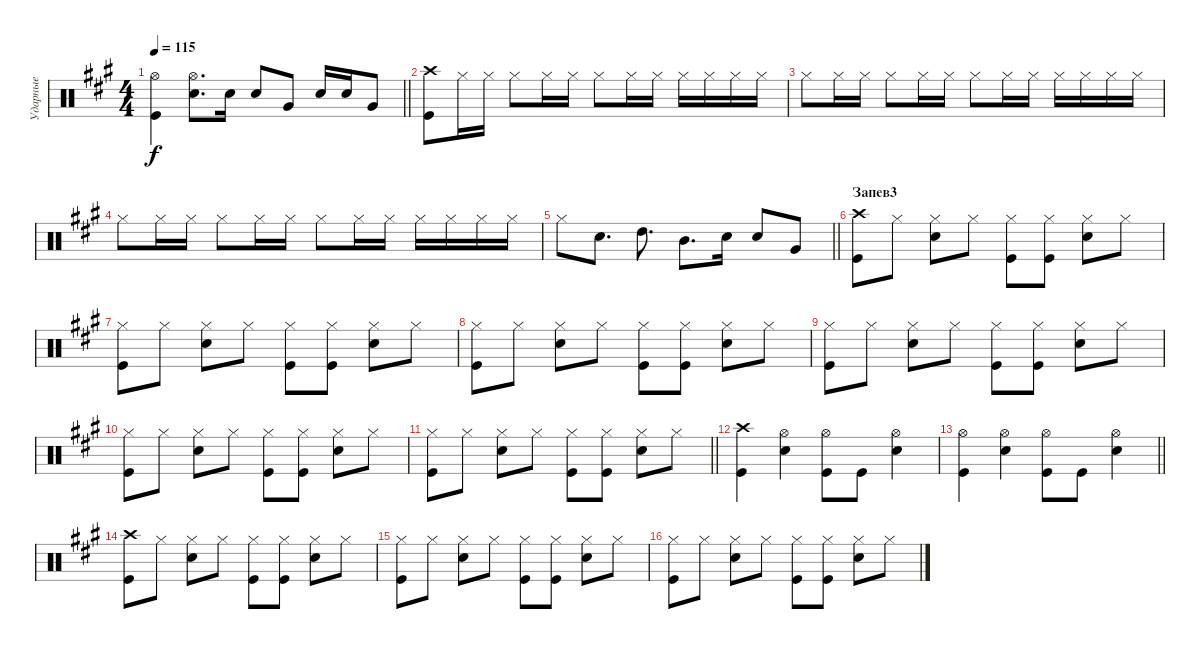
\track ("Ударные" "Ударные") {instrument percussion}
\staff {score}
\articulation defaults
\ts (4 4)
\tempo 115
\clef neutral
\barLineRight lightlight
\ks a
("Hi-Hat (open)" "Kick (hit)").4{dy f} ("Hi-Hat (open)" "Snare (hit) 2").8{d} "Snare (hit) 2".16 "Snare (hit) 2".8 "Very Low Tom (hit)".8 "Snare (hit) 2".16 "Snare (hit) 2".16 "Very Low Tom (hit)".8 |
("Kick (hit)" "Crash high (hit)").8 "Hi-Hat (closed)".16 "Hi-Hat (closed)".16 "Hi-Hat (closed)".8 "Hi-Hat (closed)".16 "Hi-Hat (closed)".16 "Hi-Hat (closed)".8 "Hi-Hat (closed)".16 "Hi-Hat (closed)".16 "Hi-Hat (closed)".16 "Hi-Hat (closed)".16 "Hi-Hat (closed)".16 "Hi-Hat (closed)".16 |
"Hi-Hat (closed)".8 "Hi-Hat (closed)".16 "Hi-Hat (closed)".16 "Hi-Hat (closed)".8 "Hi-Hat (closed)".16 "Hi-Hat (closed)".16 "Hi-Hat (closed)".8 "Hi-Hat (closed)".16 "Hi-Hat (closed)".16 "Hi-Hat (closed)".16 "Hi-Hat (closed)".16 "Hi-Hat (closed)".16 "Hi-Hat (closed)".16 |
"Hi-Hat (closed)".8 "Hi-Hat (closed)".16 "Hi-Hat (closed)".16 "Hi-Hat (closed)".8 "Hi-Hat (closed)".16 "Hi-Hat (closed)".16 "Hi-Hat (closed)".8 "Hi-Hat (closed)".16 "Hi-Hat (closed)".16 "Hi-Hat (closed)".16 "Hi-Hat (closed)".16 "Hi-Hat (closed)".16 "Hi-Hat (closed)".16 |
\barLineRight lightlight "Hi-Hat (closed)".8 "Snare (hit) 2".8{d} "High Tom (hit)".8{d} "Mid Tom (hit)".8{d} "Snare (hit) 2".16 "Snare (hit) 2".8 "Very Low Tom (hit)".8
|
\section ("" "Запев3")
("Crash high (hit)" "Kick (hit)").8 "Hi-Hat (closed)".8 ("Hi-Hat (closed)" "Snare (hit) 2").8 "Hi-Hat (closed)".8 ("Hi-Hat (closed)" "Kick (hit)").8 ("Kick (hit)" "Hi-Hat (closed)").8 ("Hi-Hat (closed)" "Snare (hit) 2").8 "Hi-Hat (closed)".8 |
("Hi-Hat (closed)" "Kick (hit)").8 "Hi-Hat (closed)".8 ("Snare (hit) 2" "Hi-Hat (closed)").8 "Hi-Hat (closed)".8 ("Hi-Hat (closed)" "Kick (hit)").8 ("Kick (hit)" "Hi-Hat (closed)").8 ("Hi-Hat (closed)" "Snare (hit) 2").8 "Hi-Hat (closed)".8 |
("Hi-Hat (closed)" "Kick (hit)").8 "Hi-Hat (closed)".8 ("Snare (hit) 2" "Hi-Hat (closed)").8 "Hi-Hat (closed)".8 ("Hi-Hat (closed)" "Kick (hit)").8 ("Kick (hit)" "Hi-Hat (closed)").8 ("Hi-Hat (closed)" "Snare (hit) 2").8 "Hi-Hat (closed)".8 |
("Hi-Hat (closed)" "Kick (hit)").8 "Hi-Hat (closed)".8 ("Snare (hit) 2" "Hi-Hat (closed)").8 "Hi-Hat (closed)".8 ("Hi-Hat (closed)" "Kick (hit)").8 ("Kick (hit)" "Hi-Hat (closed)").8 ("Hi-Hat (closed)" "Snare (hit) 2").8 "Hi-Hat (closed)".8 |
("Hi-Hat (closed)" "Kick (hit)").8 "Hi-Hat (closed)".8 ("Snare (hit) 2" "Hi-Hat (closed)").8 "Hi-Hat (closed)".8 ("Hi-Hat (closed)" "Kick (hit)").8 ("Kick (hit)" "Hi-Hat (closed)").8 ("Hi-Hat (closed)" "Snare (hit) 2").8 "Hi-Hat (closed)".8 |
\barLineRight lightlight
("Hi-Hat (closed)" "Kick (hit)").8 "Hi-Hat (closed)".8 ("Snare (hit) 2" "Hi-Hat (closed)").8 "Hi-Hat (closed)".8 ("Hi-Hat (closed)" "Kick (hit)").8 ("Kick (hit)" "Hi-Hat (closed)").8 ("Hi-Hat (closed)" "Snare (hit) 2").8 "Hi-Hat (closed)".8 |
("Crash high (hit)" "Kick (hit)").4 ("Hi-Hat (open)" "Snare (hit) 2").4 ("Hi-Hat (open)" "Kick (hit)").8 "Kick (hit)".8 ("Hi-Hat (open)" "Snare (hit) 2").4 |
\barLineRight lightlight
("Hi-Hat (open)" "Kick (hit)").4 ("Hi-Hat (open)" "Snare (hit) 2").4 ("Hi-Hat (open)" "Kick (hit)").8 "Kick (hit)".8 ("Hi-Hat (open)" "Snare (hit) 2").4 |
("Crash high (hit)" "Kick (hit)").8 "Hi-Hat (closed)".8 ("Hi-Hat (closed)" "Snare (hit) 2").8 "Hi-Hat (closed)".8 ("Hi-Hat (closed)" "Kick (hit)").8 ("Kick (hit)" "Hi-Hat (closed)").8 ("Hi-Hat (closed)" "Snare (hit) 2").8 "Hi-Hat (closed)".8 |
("Hi-Hat (closed)" "Kick (hit)").8 "Hi-Hat (closed)".8 ("Snare (hit) 2" "Hi-Hat (closed)").8 "Hi-Hat (closed)".8 ("Hi-Hat (closed)" "Kick (hit)").8 ("Kick (hit)" "Hi-Hat (closed)").8 ("Hi-Hat (closed)" "Snare (hit) 2").8 "Hi-Hat (closed)".8 |
("Hi-Hat (closed)" "Kick (hit)").8 "Hi-Hat (closed)".8 ("Snare (hit) 2" "Hi-Hat (closed)").8 "Hi-Hat (closed)".8 ("Hi-Hat (closed)" "Kick (hit)").8 ("Kick (hit)" "Hi-Hat (closed)").8 ("Hi-Hat (closed)" "Snare (hit) 2").8 "Hi-Hat (closed)".8
